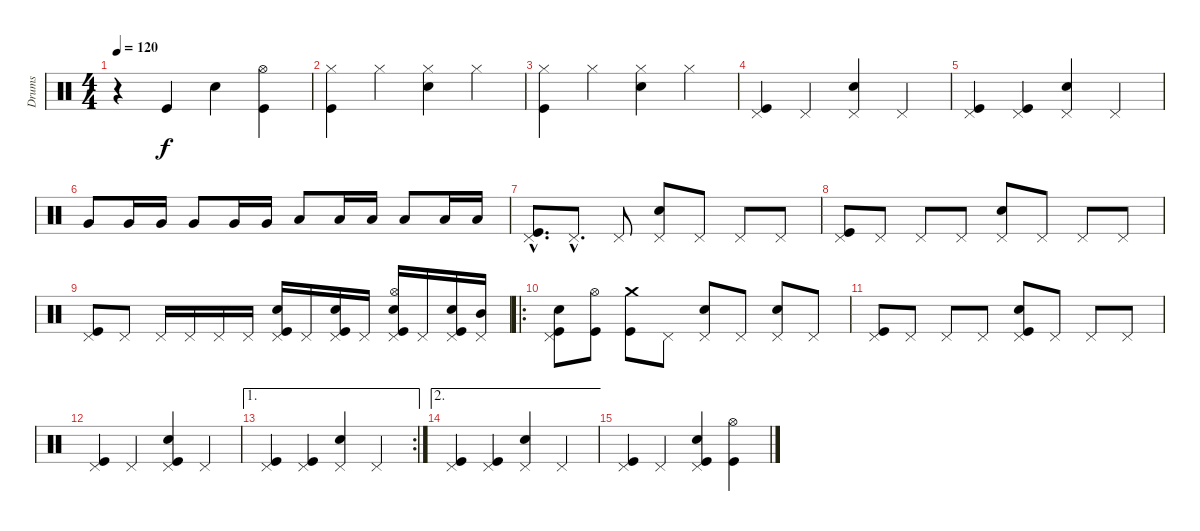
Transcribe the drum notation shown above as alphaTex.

\track ("Drums" "Drums") {instrument percussion}
\staff {score}
\articulation defaults
\ts (4 4)
\tempo 120
\clef neutral
\ks c
r.4{dy f} "Kick (hit)".4 "Snare (hit) 2".4 ("Hi-Hat (open)" "Kick (hit)").4 |
("Hi-Hat (closed)" "Kick (hit)").4 "Hi-Hat (closed)".4 ("Hi-Hat (closed)" "Snare (hit) 2").4 "Hi-Hat (closed)".4 |
("Hi-Hat (closed)" "Kick (hit)").4 "Hi-Hat (closed)".4 ("Hi-Hat (closed)" "Snare (hit) 2").4 "Hi-Hat (closed)".4 |
("Pedal Hi-Hat (hit)" "Kick (hit)").4 "Pedal Hi-Hat (hit)".4 ("Pedal Hi-Hat (hit)" "Snare (hit) 2").4 "Pedal Hi-Hat (hit)".4 |
("Pedal Hi-Hat (hit)" "Kick (hit)").4 ("Pedal Hi-Hat (hit)" "Kick (hit)").4 ("Pedal Hi-Hat (hit)" "Snare (hit) 2").4 "Pedal Hi-Hat (hit)".4 |
"Very Low Tom (hit)".8 "Very Low Tom (hit)".16 "Very Low Tom (hit)".16 "Very Low Tom (hit)".8 "Very Low Tom (hit)".16 "Very Low Tom (hit)".16 "Low Tom (hit)".8 "Low Tom (hit)".16 "Low Tom (hit)".16 "Low Tom (hit)".8 "Low Tom (hit)".16 "Low Tom (hit)".16 |
("Pedal Hi-Hat (hit)"{hac} "Kick (hit)"{hac}).8{d} "Pedal Hi-Hat (hit)"{hac}.8{d} "Pedal Hi-Hat (hit)".8 ("Pedal Hi-Hat (hit)" "Snare (hit) 2").8 "Pedal Hi-Hat (hit)".8 "Pedal Hi-Hat (hit)".8 "Pedal Hi-Hat (hit)".8 |
("Pedal Hi-Hat (hit)" "Kick (hit)").8 "Pedal Hi-Hat (hit)".8 "Pedal Hi-Hat (hit)".8 "Pedal Hi-Hat (hit)".8 ("Pedal Hi-Hat (hit)" "Snare (hit) 2").8 "Pedal Hi-Hat (hit)".8 "Pedal Hi-Hat (hit)".8 "Pedal Hi-Hat (hit)".8 |
("Pedal Hi-Hat (hit)" "Kick (hit)").8 "Pedal Hi-Hat (hit)".8 "Pedal Hi-Hat (hit)".16 "Pedal Hi-Hat (hit)".16 "Pedal Hi-Hat (hit)".16 "Pedal Hi-Hat (hit)".16 ("Pedal Hi-Hat (hit)" "Snare (hit) 2" "Kick (hit)").16 "Pedal Hi-Hat (hit)".16 ("Pedal Hi-Hat (hit)" "Snare (hit) 2" "Kick (hit)").16 "Pedal Hi-Hat (hit)".16 ("Pedal Hi-Hat (hit)" "Hi-Hat (open)" "Snare (hit) 2" "Kick (hit)").16 "Pedal Hi-Hat (hit)".16 ("Pedal Hi-Hat (hit)" "Snare (hit) 2" "Kick (hit)").16 ("Pedal Hi-Hat (hit)" "Mid Tom (hit)").16 |
\ro
("Pedal Hi-Hat (hit)" "Snare (hit) 2" "Kick (hit)").8 ("Hi-Hat (open)" "Kick (hit)").8 ("Crash medium (hit)" "Kick (hit)").8 "Pedal Hi-Hat (hit)".8 ("Pedal Hi-Hat (hit)" "Snare (hit) 2").8 "Pedal Hi-Hat (hit)".8 ("Pedal Hi-Hat (hit)" "Snare (hit) 2").8 "Pedal Hi-Hat (hit)".8 |
("Pedal Hi-Hat (hit)" "Kick (hit)").8 "Pedal Hi-Hat (hit)".8 "Pedal Hi-Hat (hit)".8 "Pedal Hi-Hat (hit)".8 ("Pedal Hi-Hat (hit)" "Snare (hit) 2" "Kick (hit)").8 "Pedal Hi-Hat (hit)".8 "Pedal Hi-Hat (hit)".8 "Pedal Hi-Hat (hit)".8 |
("Pedal Hi-Hat (hit)" "Kick (hit)").4 "Pedal Hi-Hat (hit)".4 ("Pedal Hi-Hat (hit)" "Snare (hit) 2" "Kick (hit)").4 "Pedal Hi-Hat (hit)".4 |
\ae 1
\rc 2
("Pedal Hi-Hat (hit)" "Kick (hit)").4 ("Pedal Hi-Hat (hit)" "Kick (hit)").4 ("Pedal Hi-Hat (hit)" "Snare (hit) 2").4 "Pedal Hi-Hat (hit)".4 |
\ae 2
("Pedal Hi-Hat (hit)" "Kick (hit)").4 ("Pedal Hi-Hat (hit)" "Kick (hit)").4 ("Pedal Hi-Hat (hit)" "Snare (hit) 2").4 "Pedal Hi-Hat (hit)".4 |
("Pedal Hi-Hat (hit)" "Kick (hit)").4 "Pedal Hi-Hat (hit)".4 ("Pedal Hi-Hat (hit)" "Snare (hit) 2" "Kick (hit)").4 ("Hi-Hat (open)" "Kick (hit)").4
